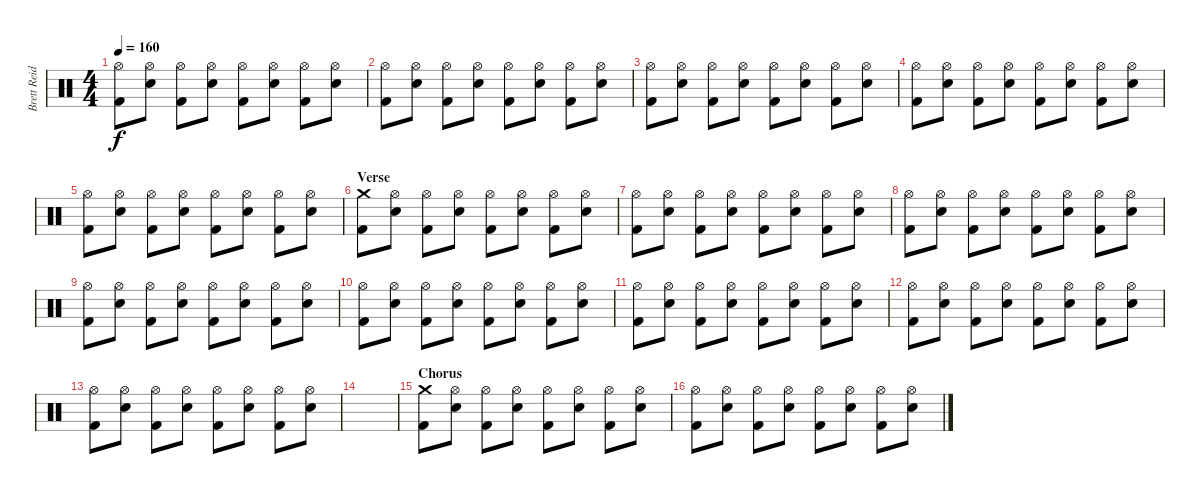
\track ("Brett Reid" "Brett Reid") {instrument percussion}
\staff {score}
\articulation defaults
\ts (4 4)
\tempo 160
\clef neutral
\ks c
("Hi-Hat (open)" "Kick (hit) 2").8{dy f} ("Hi-Hat (open)" "Electric Snare (hit)").8 ("Hi-Hat (open)" "Kick (hit) 2").8 ("Hi-Hat (open)" "Electric Snare (hit)").8 ("Hi-Hat (open)" "Kick (hit) 2").8 ("Hi-Hat (open)" "Electric Snare (hit)").8 ("Hi-Hat (open)" "Kick (hit) 2").8 ("Hi-Hat (open)" "Electric Snare (hit)").8 |
("Hi-Hat (open)" "Kick (hit) 2").8 ("Hi-Hat (open)" "Electric Snare (hit)").8 ("Hi-Hat (open)" "Kick (hit) 2").8 ("Hi-Hat (open)" "Electric Snare (hit)").8 ("Hi-Hat (open)" "Kick (hit) 2").8 ("Hi-Hat (open)" "Electric Snare (hit)").8 ("Hi-Hat (open)" "Kick (hit) 2").8 ("Hi-Hat (open)" "Electric Snare (hit)").8 |
("Hi-Hat (open)" "Kick (hit) 2").8 ("Hi-Hat (open)" "Electric Snare (hit)").8 ("Hi-Hat (open)" "Kick (hit) 2").8 ("Hi-Hat (open)" "Electric Snare (hit)").8 ("Hi-Hat (open)" "Kick (hit) 2").8 ("Hi-Hat (open)" "Electric Snare (hit)").8 ("Hi-Hat (open)" "Kick (hit) 2").8 ("Hi-Hat (open)" "Electric Snare (hit)").8 |
("Hi-Hat (open)" "Kick (hit) 2").8 ("Hi-Hat (open)" "Electric Snare (hit)").8 ("Hi-Hat (open)" "Kick (hit) 2").8 ("Hi-Hat (open)" "Electric Snare (hit)").8 ("Hi-Hat (open)" "Kick (hit) 2").8 ("Hi-Hat (open)" "Electric Snare (hit)").8 ("Hi-Hat (open)" "Kick (hit) 2").8 ("Hi-Hat (open)" "Electric Snare (hit)").8 |
("Hi-Hat (open)" "Kick (hit) 2").8 ("Hi-Hat (open)" "Electric Snare (hit)").8 ("Hi-Hat (open)" "Kick (hit) 2").8 ("Hi-Hat (open)" "Electric Snare (hit)").8 ("Hi-Hat (open)" "Kick (hit) 2").8 ("Hi-Hat (open)" "Electric Snare (hit)").8 ("Hi-Hat (open)" "Kick (hit) 2").8 ("Hi-Hat (open)" "Electric Snare (hit)").8 |
\section ("" "Verse")
("Crash medium (hit)" "Kick (hit) 2").8 ("Hi-Hat (open)" "Electric Snare (hit)").8 ("Hi-Hat (open)" "Kick (hit) 2").8 ("Hi-Hat (open)" "Electric Snare (hit)").8 ("Hi-Hat (open)" "Kick (hit) 2").8 ("Hi-Hat (open)" "Electric Snare (hit)").8 ("Hi-Hat (open)" "Kick (hit) 2").8 ("Hi-Hat (open)" "Electric Snare (hit)").8 |
("Hi-Hat (open)" "Kick (hit) 2").8 ("Hi-Hat (open)" "Electric Snare (hit)").8 ("Hi-Hat (open)" "Kick (hit) 2").8 ("Hi-Hat (open)" "Electric Snare (hit)").8 ("Hi-Hat (open)" "Kick (hit) 2").8 ("Hi-Hat (open)" "Electric Snare (hit)").8 ("Hi-Hat (open)" "Kick (hit) 2").8 ("Hi-Hat (open)" "Electric Snare (hit)").8 |
("Hi-Hat (open)" "Kick (hit) 2").8 ("Hi-Hat (open)" "Electric Snare (hit)").8 ("Hi-Hat (open)" "Kick (hit) 2").8 ("Hi-Hat (open)" "Electric Snare (hit)").8 ("Hi-Hat (open)" "Kick (hit) 2").8 ("Hi-Hat (open)" "Electric Snare (hit)").8 ("Hi-Hat (open)" "Kick (hit) 2").8 ("Hi-Hat (open)" "Electric Snare (hit)").8 |
("Hi-Hat (open)" "Kick (hit) 2").8 ("Hi-Hat (open)" "Electric Snare (hit)").8 ("Hi-Hat (open)" "Kick (hit) 2").8 ("Hi-Hat (open)" "Electric Snare (hit)").8 ("Hi-Hat (open)" "Kick (hit) 2").8 ("Hi-Hat (open)" "Electric Snare (hit)").8 ("Hi-Hat (open)" "Kick (hit) 2").8 ("Hi-Hat (open)" "Electric Snare (hit)").8 |
("Hi-Hat (open)" "Kick (hit) 2").8 ("Hi-Hat (open)" "Electric Snare (hit)").8 ("Hi-Hat (open)" "Kick (hit) 2").8 ("Hi-Hat (open)" "Electric Snare (hit)").8 ("Hi-Hat (open)" "Kick (hit) 2").8 ("Hi-Hat (open)" "Electric Snare (hit)").8 ("Hi-Hat (open)" "Kick (hit) 2").8 ("Hi-Hat (open)" "Electric Snare (hit)").8 |
("Hi-Hat (open)" "Kick (hit) 2").8 ("Hi-Hat (open)" "Electric Snare (hit)").8 ("Hi-Hat (open)" "Kick (hit) 2").8 ("Hi-Hat (open)" "Electric Snare (hit)").8 ("Hi-Hat (open)" "Kick (hit) 2").8 ("Hi-Hat (open)" "Electric Snare (hit)").8 ("Hi-Hat (open)" "Kick (hit) 2").8 ("Hi-Hat (open)" "Electric Snare (hit)").8 |
("Hi-Hat (open)" "Kick (hit) 2").8 ("Hi-Hat (open)" "Electric Snare (hit)").8 ("Hi-Hat (open)" "Kick (hit) 2").8 ("Hi-Hat (open)" "Electric Snare (hit)").8 ("Hi-Hat (open)" "Kick (hit) 2").8 ("Hi-Hat (open)" "Electric Snare (hit)").8 ("Hi-Hat (open)" "Kick (hit) 2").8 ("Hi-Hat (open)" "Electric Snare (hit)").8 |
("Hi-Hat (open)" "Kick (hit) 2").8 ("Hi-Hat (open)" "Electric Snare (hit)").8 ("Hi-Hat (open)" "Kick (hit) 2").8 ("Hi-Hat (open)" "Electric Snare (hit)").8 ("Hi-Hat (open)" "Kick (hit) 2").8 ("Hi-Hat (open)" "Electric Snare (hit)").8 ("Hi-Hat (open)" "Kick (hit) 2").8 ("Hi-Hat (open)" "Electric Snare (hit)").8 |
|
\section ("" "Chorus")
("Crash medium (hit)" "Kick (hit) 2").8 ("Hi-Hat (open)" "Electric Snare (hit)").8 ("Hi-Hat (open)" "Kick (hit) 2").8 ("Hi-Hat (open)" "Electric Snare (hit)").8 ("Hi-Hat (open)" "Kick (hit) 2").8 ("Hi-Hat (open)" "Electric Snare (hit)").8 ("Hi-Hat (open)" "Kick (hit) 2").8 ("Hi-Hat (open)" "Electric Snare (hit)").8 |
("Hi-Hat (open)" "Kick (hit) 2").8 ("Hi-Hat (open)" "Electric Snare (hit)").8 ("Hi-Hat (open)" "Kick (hit) 2").8 ("Hi-Hat (open)" "Electric Snare (hit)").8 ("Hi-Hat (open)" "Kick (hit) 2").8 ("Hi-Hat (open)" "Electric Snare (hit)").8 ("Hi-Hat (open)" "Kick (hit) 2").8 ("Hi-Hat (open)" "Electric Snare (hit)").8
